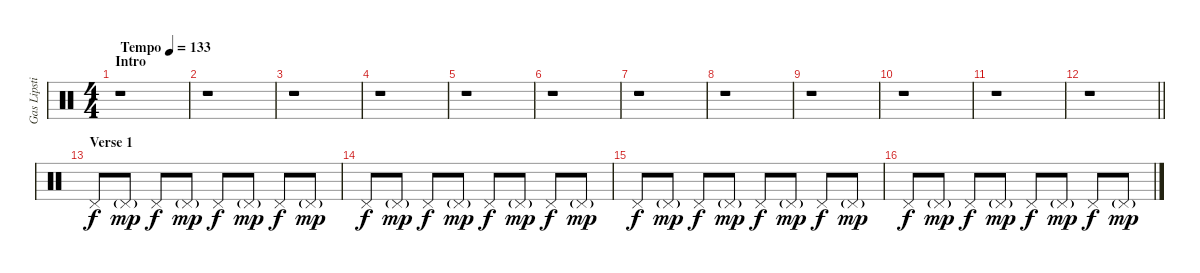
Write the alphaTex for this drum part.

\track ("Gas Lipstick (Drums)" "Gas Lipsti") {instrument percussion}
\staff {score}
\articulation defaults
\ts (4 4)
\section ("" "Intro")
\tempo (133 "Tempo")
\clef neutral
\ks c
r.1{dy f} |
r.1 |
r.1 |
r.1 |
r.1 |
r.1 |
r.1 |
r.1 |
r.1 |
r.1 |
r.1 |
\barLineRight lightlight
r.1 |
\section ("" "Verse 1")
"Pedal Hi-Hat (hit)".8 "Pedal Hi-Hat (hit)"{g}.8{dy mp} "Pedal Hi-Hat (hit)".8{dy f} "Pedal Hi-Hat (hit)"{g}.8{dy mp} "Pedal Hi-Hat (hit)".8{dy f} "Pedal Hi-Hat (hit)"{g}.8{dy mp} "Pedal Hi-Hat (hit)".8{dy f} "Pedal Hi-Hat (hit)"{g}.8{dy mp} |
"Pedal Hi-Hat (hit)".8{dy f} "Pedal Hi-Hat (hit)"{g}.8{dy mp} "Pedal Hi-Hat (hit)".8{dy f} "Pedal Hi-Hat (hit)"{g}.8{dy mp} "Pedal Hi-Hat (hit)".8{dy f} "Pedal Hi-Hat (hit)"{g}.8{dy mp} "Pedal Hi-Hat (hit)".8{dy f} "Pedal Hi-Hat (hit)"{g}.8{dy mp} |
"Pedal Hi-Hat (hit)".8{dy f} "Pedal Hi-Hat (hit)"{g}.8{dy mp} "Pedal Hi-Hat (hit)".8{dy f} "Pedal Hi-Hat (hit)"{g}.8{dy mp} "Pedal Hi-Hat (hit)".8{dy f} "Pedal Hi-Hat (hit)"{g}.8{dy mp} "Pedal Hi-Hat (hit)".8{dy f} "Pedal Hi-Hat (hit)"{g}.8{dy mp} |
"Pedal Hi-Hat (hit)".8{dy f} "Pedal Hi-Hat (hit)"{g}.8{dy mp} "Pedal Hi-Hat (hit)".8{dy f} "Pedal Hi-Hat (hit)"{g}.8{dy mp} "Pedal Hi-Hat (hit)".8{dy f} "Pedal Hi-Hat (hit)"{g}.8{dy mp} "Pedal Hi-Hat (hit)".8{dy f} "Pedal Hi-Hat (hit)"{g}.8{dy mp}
